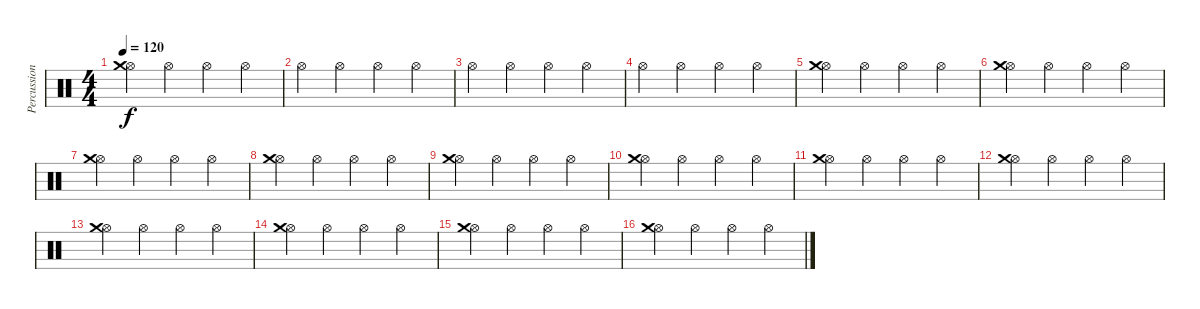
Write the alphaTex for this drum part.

\track ("Percussions" "Percussion") {instrument percussion}
\staff {score}
\articulation defaults
\ts (4 4)
\tempo 120
\clef neutral
\ks c
("Hi-Hat (open)" "Crash medium (hit)").4{dy f} "Hi-Hat (open)".4 "Hi-Hat (open)".4 "Hi-Hat (open)".4 |
"Hi-Hat (open)".4 "Hi-Hat (open)".4 "Hi-Hat (open)".4 "Hi-Hat (open)".4 |
"Hi-Hat (open)".4 "Hi-Hat (open)".4 "Hi-Hat (open)".4 "Hi-Hat (open)".4 |
"Hi-Hat (open)".4 "Hi-Hat (open)".4 "Hi-Hat (open)".4 "Hi-Hat (open)".4 |
("Hi-Hat (open)" "Crash medium (hit)").4 "Hi-Hat (open)".4 "Hi-Hat (open)".4 "Hi-Hat (open)".4 |
("Hi-Hat (open)" "Crash medium (hit)").4 "Hi-Hat (open)".4 "Hi-Hat (open)".4 "Hi-Hat (open)".4 |
("Hi-Hat (open)" "Crash medium (hit)").4 "Hi-Hat (open)".4 "Hi-Hat (open)".4 "Hi-Hat (open)".4 |
("Hi-Hat (open)" "Crash medium (hit)").4 "Hi-Hat (open)".4 "Hi-Hat (open)".4 "Hi-Hat (open)".4 |
("Hi-Hat (open)" "Crash medium (hit)").4 "Hi-Hat (open)".4 "Hi-Hat (open)".4 "Hi-Hat (open)".4 |
("Hi-Hat (open)" "Crash medium (hit)").4 "Hi-Hat (open)".4 "Hi-Hat (open)".4 "Hi-Hat (open)".4 |
("Hi-Hat (open)" "Crash medium (hit)").4 "Hi-Hat (open)".4 "Hi-Hat (open)".4 "Hi-Hat (open)".4 |
("Hi-Hat (open)" "Crash medium (hit)").4 "Hi-Hat (open)".4 "Hi-Hat (open)".4 "Hi-Hat (open)".4 |
("Hi-Hat (open)" "Crash medium (hit)").4 "Hi-Hat (open)".4 "Hi-Hat (open)".4 "Hi-Hat (open)".4 |
("Hi-Hat (open)" "Crash medium (hit)").4 "Hi-Hat (open)".4 "Hi-Hat (open)".4 "Hi-Hat (open)".4 |
("Hi-Hat (open)" "Crash medium (hit)").4 "Hi-Hat (open)".4 "Hi-Hat (open)".4 "Hi-Hat (open)".4 |
("Hi-Hat (open)" "Crash medium (hit)").4 "Hi-Hat (open)".4 "Hi-Hat (open)".4 "Hi-Hat (open)".4
